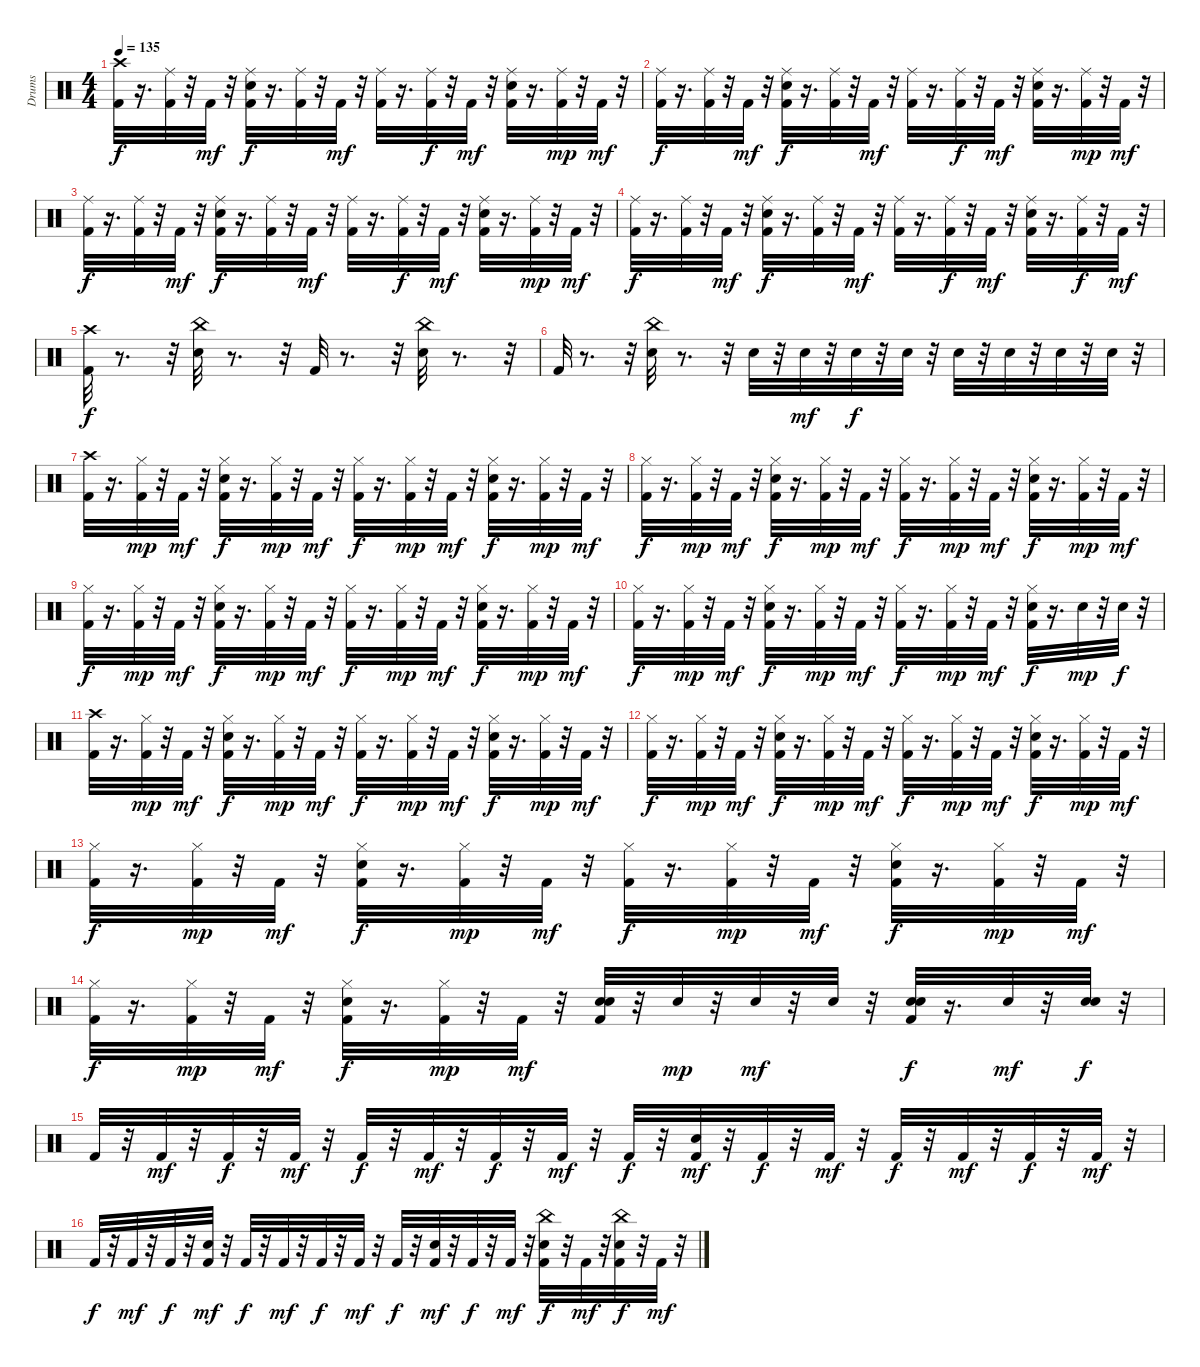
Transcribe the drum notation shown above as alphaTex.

\track ("Drums" "Drums") {instrument percussion}
\staff {score}
\articulation defaults
\ts (4 4)
\tempo 135
\clef neutral
\ks c
("Crash high (hit)" "Kick (hit) 2").32{dy f} r.16{d} ("Ride (middle)" "Kick (hit) 2").32 r.32 "Kick (hit) 2".32{dy mf} r.32 ("Kick (hit) 2" "Ride (middle)" "Snare (hit) 2").32{dy f} r.16{d} ("Ride (middle)" "Kick (hit) 2").32 r.32 "Kick (hit) 2".32{dy mf} r.32 ("Ride (middle)" "Kick (hit) 2").32 r.16{d} ("Ride (middle)" "Kick (hit) 2").32{dy f} r.32 "Kick (hit) 2".32{dy mf} r.32 ("Kick (hit) 2" "Ride (middle)" "Snare (hit) 2").32 r.16{d} ("Ride (middle)" "Kick (hit) 2").32{dy mp} r.32 "Kick (hit) 2".32{dy mf} r.32 |
("Ride (middle)" "Kick (hit) 2").32{dy f} r.16{d} ("Ride (middle)" "Kick (hit) 2").32 r.32 "Kick (hit) 2".32{dy mf} r.32 ("Kick (hit) 2" "Ride (middle)" "Snare (hit) 2").32{dy f} r.16{d} ("Ride (middle)" "Kick (hit) 2").32 r.32 "Kick (hit) 2".32{dy mf} r.32 ("Ride (middle)" "Kick (hit) 2").32 r.16{d} ("Ride (middle)" "Kick (hit) 2").32{dy f} r.32 "Kick (hit) 2".32{dy mf} r.32 ("Kick (hit) 2" "Ride (middle)" "Snare (hit) 2").32 r.16{d} ("Ride (middle)" "Kick (hit) 2").32{dy mp} r.32 "Kick (hit) 2".32{dy mf} r.32 |
("Ride (middle)" "Kick (hit) 2").32{dy f} r.16{d} ("Ride (middle)" "Kick (hit) 2").32 r.32 "Kick (hit) 2".32{dy mf} r.32 ("Kick (hit) 2" "Ride (middle)" "Snare (hit) 2").32{dy f} r.16{d} ("Ride (middle)" "Kick (hit) 2").32 r.32 "Kick (hit) 2".32{dy mf} r.32 ("Ride (middle)" "Kick (hit) 2").32 r.16{d} ("Ride (middle)" "Kick (hit) 2").32{dy f} r.32 "Kick (hit) 2".32{dy mf} r.32 ("Kick (hit) 2" "Ride (middle)" "Snare (hit) 2").32 r.16{d} ("Ride (middle)" "Kick (hit) 2").32{dy mp} r.32 "Kick (hit) 2".32{dy mf} r.32 |
("Ride (middle)" "Kick (hit) 2").32{dy f} r.16{d} ("Ride (middle)" "Kick (hit) 2").32 r.32 "Kick (hit) 2".32{dy mf} r.32 ("Kick (hit) 2" "Ride (middle)" "Snare (hit) 2").32{dy f} r.16{d} ("Ride (middle)" "Kick (hit) 2").32 r.32 "Kick (hit) 2".32{dy mf} r.32 ("Ride (middle)" "Kick (hit) 2").32 r.16{d} ("Ride (middle)" "Kick (hit) 2").32{dy f} r.32 "Kick (hit) 2".32{dy mf} r.32 ("Kick (hit) 2" "Ride (middle)" "Snare (hit) 2").32 r.16{d} ("Ride (middle)" "Kick (hit) 2").32{dy f} r.32 "Kick (hit) 2".32{dy mf} r.32 |
("Crash high (hit)" "Kick (hit) 2").32{dy f} r.8{d} r.32 ("China (hit)" "Snare (hit) 2").32 r.8{d} r.32 "Kick (hit) 2".32 r.8{d} r.32 ("China (hit)" "Snare (hit) 2").32 r.8{d} r.32 |
"Kick (hit) 2".32 r.8{d} r.32 ("China (hit)" "Snare (hit) 2").32 r.8{d} r.32 "Snare (hit) 2".32 r.32 "Snare (hit) 2".32{dy mf} r.32 "Snare (hit) 2".32{dy f} r.32 "Snare (hit) 2".32 r.32 "Snare (hit) 2".32 r.32 "Snare (hit) 2".32 r.32 "Snare (hit) 2".32 r.32 "Snare (hit) 2".32 r.32 |
("Crash high (hit)" "Kick (hit) 2").32 r.16{d} ("Hi-Hat (closed)" "Kick (hit) 2").32{dy mp} r.32 "Kick (hit) 2".32{dy mf} r.32 ("Hi-Hat (closed)" "Snare (hit) 2" "Kick (hit) 2").32{dy f} r.16{d} ("Kick (hit) 2" "Hi-Hat (closed)").32{dy mp} r.32 "Kick (hit) 2".32{dy mf} r.32 ("Kick (hit) 2" "Hi-Hat (closed)").32{dy f} r.16{d} ("Kick (hit) 2" "Hi-Hat (closed)").32{dy mp} r.32 "Kick (hit) 2".32{dy mf} r.32 ("Hi-Hat (closed)" "Snare (hit) 2" "Kick (hit) 2").32{dy f} r.16{d} ("Kick (hit) 2" "Hi-Hat (closed)").32{dy mp} r.32 "Kick (hit) 2".32{dy mf} r.32 |
("Kick (hit) 2" "Hi-Hat (closed)").32{dy f} r.16{d} ("Kick (hit) 2" "Hi-Hat (closed)").32{dy mp} r.32 "Kick (hit) 2".32{dy mf} r.32 ("Hi-Hat (closed)" "Snare (hit) 2" "Kick (hit) 2").32{dy f} r.16{d} ("Kick (hit) 2" "Hi-Hat (closed)").32{dy mp} r.32 "Kick (hit) 2".32{dy mf} r.32 ("Kick (hit) 2" "Hi-Hat (closed)").32{dy f} r.16{d} ("Kick (hit) 2" "Hi-Hat (closed)").32{dy mp} r.32 "Kick (hit) 2".32{dy mf} r.32 ("Hi-Hat (closed)" "Snare (hit) 2" "Kick (hit) 2").32{dy f} r.16{d} ("Kick (hit) 2" "Hi-Hat (closed)").32{dy mp} r.32 "Kick (hit) 2".32{dy mf} r.32 |
("Kick (hit) 2" "Hi-Hat (closed)").32{dy f} r.16{d} ("Kick (hit) 2" "Hi-Hat (closed)").32{dy mp} r.32 "Kick (hit) 2".32{dy mf} r.32 ("Hi-Hat (closed)" "Snare (hit) 2" "Kick (hit) 2").32{dy f} r.16{d} ("Kick (hit) 2" "Hi-Hat (closed)").32{dy mp} r.32 "Kick (hit) 2".32{dy mf} r.32 ("Kick (hit) 2" "Hi-Hat (closed)").32{dy f} r.16{d} ("Kick (hit) 2" "Hi-Hat (closed)").32{dy mp} r.32 "Kick (hit) 2".32{dy mf} r.32 ("Hi-Hat (closed)" "Snare (hit) 2" "Kick (hit) 2").32{dy f} r.16{d} ("Kick (hit) 2" "Hi-Hat (closed)").32{dy mp} r.32 "Kick (hit) 2".32{dy mf} r.32 |
("Kick (hit) 2" "Hi-Hat (closed)").32{dy f} r.16{d} ("Kick (hit) 2" "Hi-Hat (closed)").32{dy mp} r.32 "Kick (hit) 2".32{dy mf} r.32 ("Hi-Hat (closed)" "Snare (hit) 2" "Kick (hit) 2").32{dy f} r.16{d} ("Kick (hit) 2" "Hi-Hat (closed)").32{dy mp} r.32 "Kick (hit) 2".32{dy mf} r.32 ("Kick (hit) 2" "Hi-Hat (closed)").32{dy f} r.16{d} ("Kick (hit) 2" "Hi-Hat (closed)").32{dy mp} r.32 "Kick (hit) 2".32{dy mf} r.32 ("Hi-Hat (closed)" "Snare (hit) 2" "Kick (hit) 2").32{dy f} r.16{d} "Snare (hit) 2".32{dy mp} r.32 "Snare (hit) 2".32{dy f} r.32 |
("Crash high (hit)" "Kick (hit) 2").32 r.16{d} ("Hi-Hat (closed)" "Kick (hit) 2").32{dy mp} r.32 "Kick (hit) 2".32{dy mf} r.32 ("Hi-Hat (closed)" "Snare (hit) 2" "Kick (hit) 2").32{dy f} r.16{d} ("Kick (hit) 2" "Hi-Hat (closed)").32{dy mp} r.32 "Kick (hit) 2".32{dy mf} r.32 ("Kick (hit) 2" "Hi-Hat (closed)").32{dy f} r.16{d} ("Kick (hit) 2" "Hi-Hat (closed)").32{dy mp} r.32 "Kick (hit) 2".32{dy mf} r.32 ("Hi-Hat (closed)" "Snare (hit) 2" "Kick (hit) 2").32{dy f} r.16{d} ("Kick (hit) 2" "Hi-Hat (closed)").32{dy mp} r.32 "Kick (hit) 2".32{dy mf} r.32 |
("Kick (hit) 2" "Hi-Hat (closed)").32{dy f} r.16{d} ("Kick (hit) 2" "Hi-Hat (closed)").32{dy mp} r.32 "Kick (hit) 2".32{dy mf} r.32 ("Hi-Hat (closed)" "Snare (hit) 2" "Kick (hit) 2").32{dy f} r.16{d} ("Kick (hit) 2" "Hi-Hat (closed)").32{dy mp} r.32 "Kick (hit) 2".32{dy mf} r.32 ("Kick (hit) 2" "Hi-Hat (closed)").32{dy f} r.16{d} ("Kick (hit) 2" "Hi-Hat (closed)").32{dy mp} r.32 "Kick (hit) 2".32{dy mf} r.32 ("Hi-Hat (closed)" "Snare (hit) 2" "Kick (hit) 2").32{dy f} r.16{d} ("Kick (hit) 2" "Hi-Hat (closed)").32{dy mp} r.32 "Kick (hit) 2".32{dy mf} r.32 |
("Kick (hit) 2" "Hi-Hat (closed)").32{dy f} r.16{d} ("Kick (hit) 2" "Hi-Hat (closed)").32{dy mp} r.32 "Kick (hit) 2".32{dy mf} r.32 ("Hi-Hat (closed)" "Snare (hit) 2" "Kick (hit) 2").32{dy f} r.16{d} ("Kick (hit) 2" "Hi-Hat (closed)").32{dy mp} r.32 "Kick (hit) 2".32{dy mf} r.32 ("Kick (hit) 2" "Hi-Hat (closed)").32{dy f} r.16{d} ("Kick (hit) 2" "Hi-Hat (closed)").32{dy mp} r.32 "Kick (hit) 2".32{dy mf} r.32 ("Hi-Hat (closed)" "Snare (hit) 2" "Kick (hit) 2").32{dy f} r.16{d} ("Kick (hit) 2" "Hi-Hat (closed)").32{dy mp} r.32 "Kick (hit) 2".32{dy mf} r.32 |
("Kick (hit) 2" "Hi-Hat (closed)").32{dy f} r.16{d} ("Kick (hit) 2" "Hi-Hat (closed)").32{dy mp} r.32 "Kick (hit) 2".32{dy mf} r.32 ("Hi-Hat (closed)" "Snare (hit) 2" "Kick (hit) 2").32{dy f} r.16{d} ("Kick (hit) 2" "Hi-Hat (closed)").32{dy mp} r.32 "Kick (hit) 2".32{dy mf} r.32 ("Snare (hit) 2" "Kick (hit) 2" "Snare (hit) 2").32 r.32 "Snare (hit) 2".32{dy mp} r.32 "Snare (hit) 2".32{dy mf} r.32 "Snare (hit) 2".32 r.32 ("Kick (hit) 2" "Snare (hit) 2" "Snare (hit) 2").32{dy f} r.16{d} "Snare (hit) 2".32{dy mf} r.32 ("Snare (hit) 2" "Snare (hit) 2").32{dy f} r.32 |
"Kick (hit) 2".32 r.32 "Kick (hit) 2".32{dy mf} r.32 "Kick (hit) 2".32{dy f} r.32 "Kick (hit) 2".32{dy mf} r.32 "Kick (hit) 2".32{dy f} r.32 "Kick (hit) 2".32{dy mf} r.32 "Kick (hit) 2".32{dy f} r.32 "Kick (hit) 2".32{dy mf} r.32 "Kick (hit) 2".32{dy f} r.32 ("Snare (hit) 2" "Kick (hit) 2").32{dy mf} r.32 "Kick (hit) 2".32{dy f} r.32 "Kick (hit) 2".32{dy mf} r.32 "Kick (hit) 2".32{dy f} r.32 "Kick (hit) 2".32{dy mf} r.32 "Kick (hit) 2".32{dy f} r.32 "Kick (hit) 2".32{dy mf} r.32 |
"Kick (hit) 2".32{dy f} r.32 "Kick (hit) 2".32{dy mf} r.32 "Kick (hit) 2".32{dy f} r.32 ("Snare (hit) 2" "Kick (hit) 2").32{dy mf} r.32 "Kick (hit) 2".32{dy f} r.32 "Kick (hit) 2".32{dy mf} r.32 "Kick (hit) 2".32{dy f} r.32 "Kick (hit) 2".32{dy mf} r.32 "Kick (hit) 2".32{dy f} r.32 ("Snare (hit) 2" "Kick (hit) 2").32{dy mf} r.32 "Kick (hit) 2".32{dy f} r.32 "Kick (hit) 2".32{dy mf} r.32 ("Kick (hit) 2" "China (hit)" "Snare (hit) 2").32{dy f} r.32 "Kick (hit) 2".32{dy mf} r.32 ("Kick (hit) 2" "China (hit)" "Snare (hit) 2").32{dy f} r.32 "Kick (hit) 2".32{dy mf} r.32
